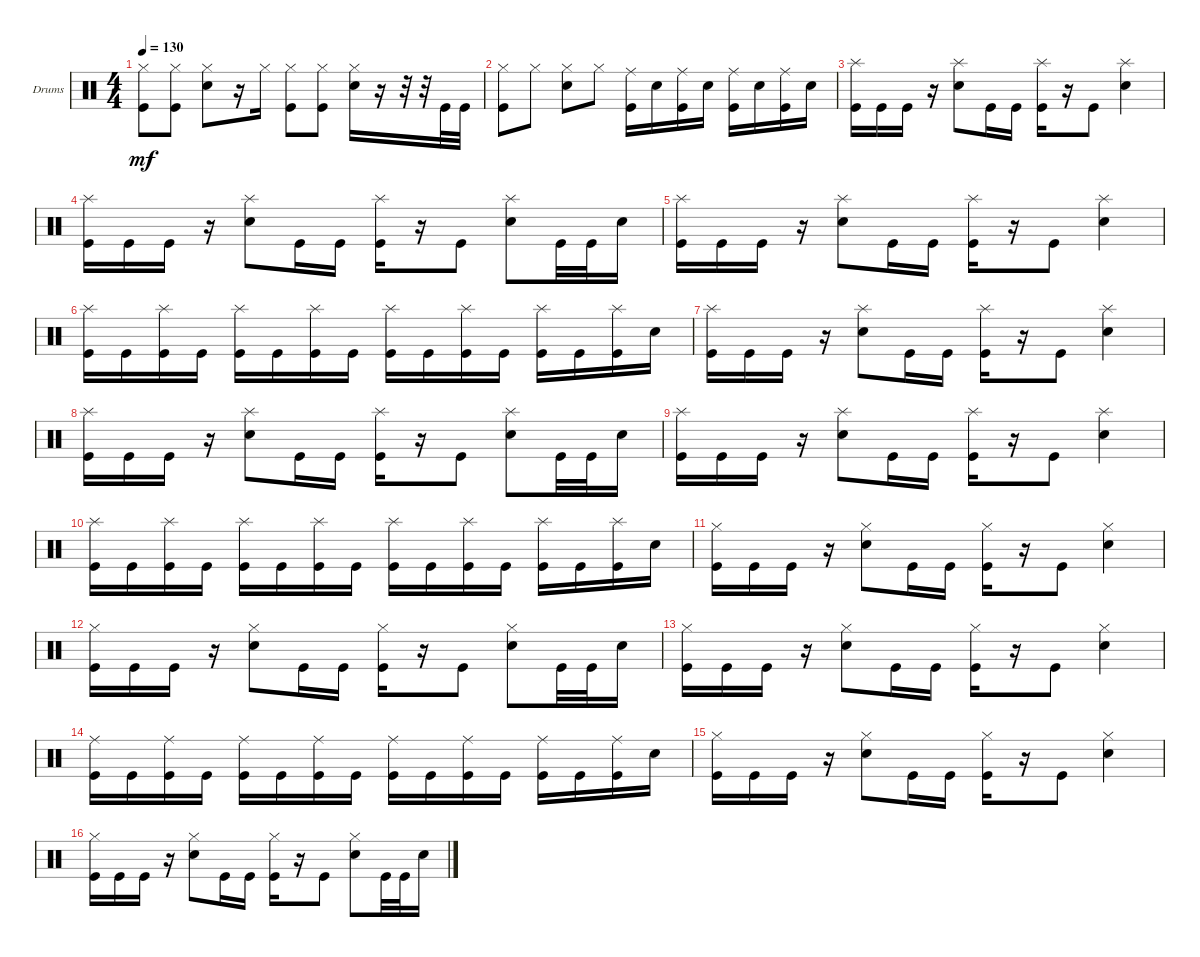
\defaultSystemsLayout 4
\bracketExtendMode groupsimilarinstruments
\firstSystemTrackNameOrientation horizontal
\otherSystemsTrackNameOrientation horizontal
\track ("Drumkit" "Drums") {instrument percussion}
\staff {score}
\articulation defaults
\ts (4 4)
\tempo 130
\clef neutral
\ks c
("Kick (hit)" "Hi-Hat (closed)").8{dy mf} ("Hi-Hat (closed)" "Kick (hit)").8 ("Snare (hit) 2" "Hi-Hat (closed)").8 r.16 "Hi-Hat (closed)".16 ("Kick (hit)" "Hi-Hat (closed)").8 ("Kick (hit)" "Hi-Hat (closed)").8 ("Snare (hit) 2" "Hi-Hat (closed)").16 r.16 r.32 r.32 "Kick (hit)".32 "Kick (hit)".32 |
("Kick (hit)" "Hi-Hat (closed)").8 "Hi-Hat (closed)".8 ("Hi-Hat (closed)" "Snare (hit) 2").8 "Hi-Hat (closed)".8 ("Kick (hit)" "Ride (middle)").16 "Snare (hit) 2".16 ("Kick (hit)" "Ride (middle)").16 "Snare (hit) 2".16 ("Kick (hit)" "Ride (middle)").16 "Snare (hit) 2".16 ("Kick (hit)" "Ride (middle)").16 "Snare (hit) 2".16 |
("Kick (hit)" "Splash (hit)").16 "Kick (hit)".16 "Kick (hit)".16 r.16 ("Snare (hit) 2" "Splash (hit)").8 "Kick (hit)".16 "Kick (hit)".16 ("Kick (hit)" "Splash (hit)").16 r.16 "Kick (hit)".8 ("Snare (hit) 2" "Splash (hit)").4 |
("Kick (hit)" "Splash (hit)").16 "Kick (hit)".16 "Kick (hit)".16 r.16 ("Snare (hit) 2" "Splash (hit)").8 "Kick (hit)".16 "Kick (hit)".16 ("Kick (hit)" "Splash (hit)").16 r.16 "Kick (hit)".8 ("Snare (hit) 2" "Splash (hit)").8 "Kick (hit)".32 "Kick (hit)".32 "Snare (hit) 2".16 |
("Kick (hit)" "Splash (hit)").16 "Kick (hit)".16 "Kick (hit)".16 r.16 ("Snare (hit) 2" "Splash (hit)").8 "Kick (hit)".16 "Kick (hit)".16 ("Kick (hit)" "Splash (hit)").16 r.16 "Kick (hit)".8 ("Snare (hit) 2" "Splash (hit)").4 |
("Kick (hit)" "Splash (hit)").16 "Kick (hit)".16 ("Kick (hit)" "Splash (hit)").16 "Kick (hit)".16 ("Kick (hit)" "Splash (hit)").16 "Kick (hit)".16 ("Kick (hit)" "Splash (hit)").16 "Kick (hit)".16 ("Kick (hit)" "Splash (hit)").16 "Kick (hit)".16 ("Kick (hit)" "Splash (hit)").16 "Kick (hit)".16 ("Kick (hit)" "Splash (hit)").16 "Kick (hit)".16 ("Splash (hit)" "Kick (hit)").16 "Snare (hit) 2".16 |
("Kick (hit)" "Splash (hit)").16 "Kick (hit)".16 "Kick (hit)".16 r.16 ("Snare (hit) 2" "Splash (hit)").8 "Kick (hit)".16 "Kick (hit)".16 ("Kick (hit)" "Splash (hit)").16 r.16 "Kick (hit)".8 ("Snare (hit) 2" "Splash (hit)").4 |
("Kick (hit)" "Splash (hit)").16 "Kick (hit)".16 "Kick (hit)".16 r.16 ("Snare (hit) 2" "Splash (hit)").8 "Kick (hit)".16 "Kick (hit)".16 ("Kick (hit)" "Splash (hit)").16 r.16 "Kick (hit)".8 ("Snare (hit) 2" "Splash (hit)").8 "Kick (hit)".32 "Kick (hit)".32 "Snare (hit) 2".16 |
("Kick (hit)" "Splash (hit)").16 "Kick (hit)".16 "Kick (hit)".16 r.16 ("Snare (hit) 2" "Splash (hit)").8 "Kick (hit)".16 "Kick (hit)".16 ("Kick (hit)" "Splash (hit)").16 r.16 "Kick (hit)".8 ("Snare (hit) 2" "Splash (hit)").4 |
("Kick (hit)" "Splash (hit)").16 "Kick (hit)".16 ("Kick (hit)" "Splash (hit)").16 "Kick (hit)".16 ("Kick (hit)" "Splash (hit)").16 "Kick (hit)".16 ("Kick (hit)" "Splash (hit)").16 "Kick (hit)".16 ("Kick (hit)" "Splash (hit)").16 "Kick (hit)".16 ("Kick (hit)" "Splash (hit)").16 "Kick (hit)".16 ("Kick (hit)" "Splash (hit)").16 "Kick (hit)".16 ("Splash (hit)" "Kick (hit)").16 "Snare (hit) 2".16 |
("Kick (hit)" "Hi-Hat (closed)").16 "Kick (hit)".16 "Kick (hit)".16 r.16 ("Snare (hit) 2" "Hi-Hat (closed)").8 "Kick (hit)".16 "Kick (hit)".16 ("Kick (hit)" "Hi-Hat (closed)").16 r.16 "Kick (hit)".8 ("Snare (hit) 2" "Hi-Hat (closed)").4 |
("Kick (hit)" "Hi-Hat (closed)").16 "Kick (hit)".16 "Kick (hit)".16 r.16 ("Snare (hit) 2" "Hi-Hat (closed)").8 "Kick (hit)".16 "Kick (hit)".16 ("Kick (hit)" "Hi-Hat (closed)").16 r.16 "Kick (hit)".8 ("Snare (hit) 2" "Hi-Hat (closed)").8 "Kick (hit)".32 "Kick (hit)".32 "Snare (hit) 2".16 |
("Kick (hit)" "Hi-Hat (closed)").16 "Kick (hit)".16 "Kick (hit)".16 r.16 ("Snare (hit) 2" "Hi-Hat (closed)").8 "Kick (hit)".16 "Kick (hit)".16 ("Kick (hit)" "Hi-Hat (closed)").16 r.16 "Kick (hit)".8 ("Snare (hit) 2" "Hi-Hat (closed)").4 |
("Kick (hit)" "Ride (middle)").16 "Kick (hit)".16 ("Kick (hit)" "Ride (middle)").16 "Kick (hit)".16 ("Kick (hit)" "Ride (middle)").16 "Kick (hit)".16 ("Kick (hit)" "Ride (middle)").16 "Kick (hit)".16 ("Kick (hit)" "Ride (middle)").16 "Kick (hit)".16 ("Kick (hit)" "Ride (middle)").16 "Kick (hit)".16 ("Kick (hit)" "Ride (middle)").16 "Kick (hit)".16 ("Kick (hit)" "Ride (middle)").16 "Snare (hit) 2".16 |
("Kick (hit)" "Hi-Hat (closed)").16 "Kick (hit)".16 "Kick (hit)".16 r.16 ("Snare (hit) 2" "Hi-Hat (closed)").8 "Kick (hit)".16 "Kick (hit)".16 ("Kick (hit)" "Hi-Hat (closed)").16 r.16 "Kick (hit)".8 ("Snare (hit) 2" "Hi-Hat (closed)").4 |
("Kick (hit)" "Hi-Hat (closed)").16 "Kick (hit)".16 "Kick (hit)".16 r.16 ("Snare (hit) 2" "Hi-Hat (closed)").8 "Kick (hit)".16 "Kick (hit)".16 ("Kick (hit)" "Hi-Hat (closed)").16 r.16 "Kick (hit)".8 ("Snare (hit) 2" "Hi-Hat (closed)").8 "Kick (hit)".32 "Kick (hit)".32 "Snare (hit) 2".16
